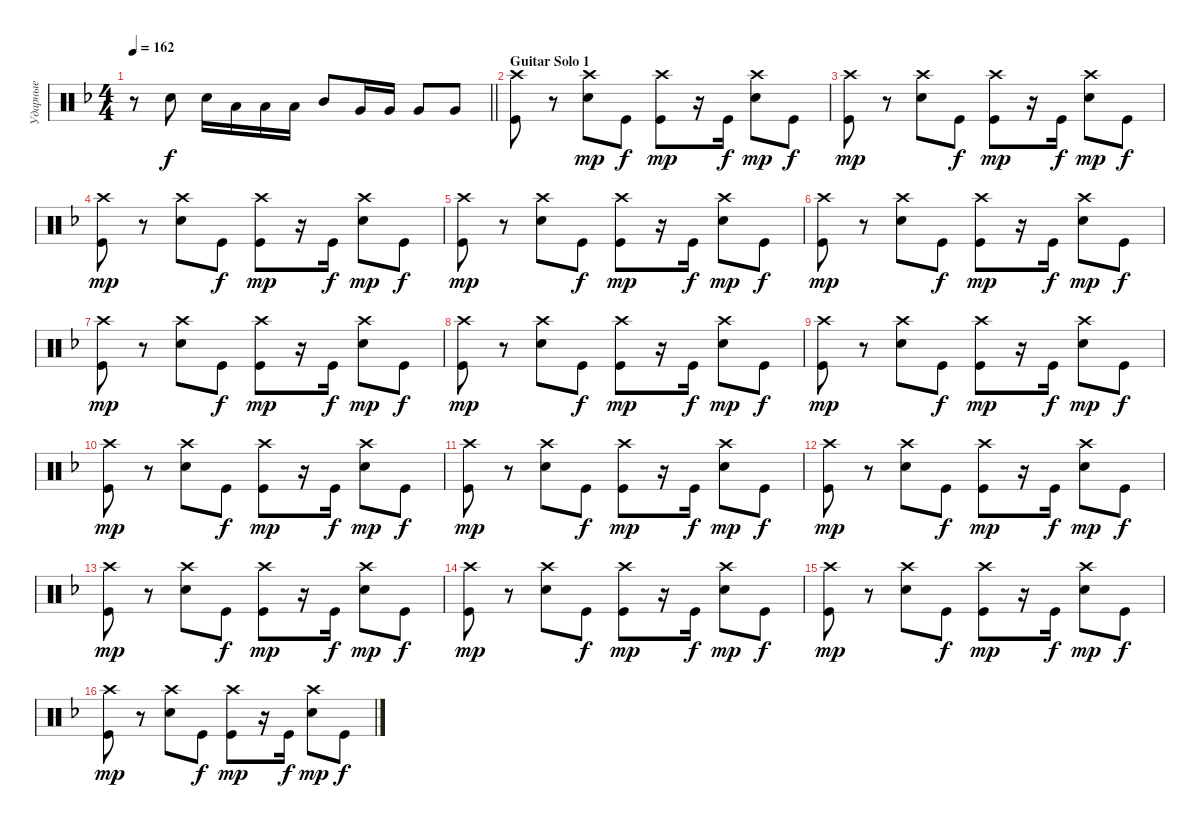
\track ("Ударные" "Ударные") {instrument percussion}
\staff {score}
\articulation defaults
\ts (4 4)
\tempo 162
\clef neutral
\barLineRight lightlight
\ks dminor
r.8{dy f} "Snare (hit) 2".8 "Snare (hit) 2".16 "Low Tom (hit)".16 "Low Tom (hit)".16 "Low Tom (hit)".16 "Mid Tom (hit)".8 "Very Low Tom (hit)".16 "Very Low Tom (hit)".16 "Very Low Tom (hit)".8 "Very Low Tom (hit)".8 |
\section ("" "Guitar Solo 1")
("Kick (hit)" "Crash high (hit)").8 r.8 ("Snare (hit) 2" "Crash high (hit)").8{dy mp} "Kick (hit)".8{dy f} ("Crash high (hit)" "Kick (hit)").8{dy mp} r.16 "Kick (hit)".16{dy f} ("Crash high (hit)" "Snare (hit) 2").8{dy mp} "Kick (hit)".8{dy f} |
("Kick (hit)" "Crash high (hit)").8{dy mp} r.8 ("Snare (hit) 2" "Crash high (hit)").8 "Kick (hit)".8{dy f} ("Crash high (hit)" "Kick (hit)").8{dy mp} r.16 "Kick (hit)".16{dy f} ("Crash high (hit)" "Snare (hit) 2").8{dy mp} "Kick (hit)".8{dy f} |
("Kick (hit)" "Crash high (hit)").8{dy mp} r.8 ("Snare (hit) 2" "Crash high (hit)").8 "Kick (hit)".8{dy f} ("Crash high (hit)" "Kick (hit)").8{dy mp} r.16 "Kick (hit)".16{dy f} ("Crash high (hit)" "Snare (hit) 2").8{dy mp} "Kick (hit)".8{dy f} |
("Kick (hit)" "Crash high (hit)").8{dy mp} r.8 ("Snare (hit) 2" "Crash high (hit)").8 "Kick (hit)".8{dy f} ("Crash high (hit)" "Kick (hit)").8{dy mp} r.16 "Kick (hit)".16{dy f} ("Crash high (hit)" "Snare (hit) 2").8{dy mp} "Kick (hit)".8{dy f} |
("Kick (hit)" "Crash high (hit)").8{dy mp} r.8 ("Snare (hit) 2" "Crash high (hit)").8 "Kick (hit)".8{dy f} ("Crash high (hit)" "Kick (hit)").8{dy mp} r.16 "Kick (hit)".16{dy f} ("Crash high (hit)" "Snare (hit) 2").8{dy mp} "Kick (hit)".8{dy f} |
("Kick (hit)" "Crash high (hit)").8{dy mp} r.8 ("Snare (hit) 2" "Crash high (hit)").8 "Kick (hit)".8{dy f} ("Crash high (hit)" "Kick (hit)").8{dy mp} r.16 "Kick (hit)".16{dy f} ("Crash high (hit)" "Snare (hit) 2").8{dy mp} "Kick (hit)".8{dy f} |
("Kick (hit)" "Crash high (hit)").8{dy mp} r.8 ("Snare (hit) 2" "Crash high (hit)").8 "Kick (hit)".8{dy f} ("Crash high (hit)" "Kick (hit)").8{dy mp} r.16 "Kick (hit)".16{dy f} ("Crash high (hit)" "Snare (hit) 2").8{dy mp} "Kick (hit)".8{dy f} |
("Kick (hit)" "Crash high (hit)").8{dy mp} r.8 ("Snare (hit) 2" "Crash high (hit)").8 "Kick (hit)".8{dy f} ("Crash high (hit)" "Kick (hit)").8{dy mp} r.16 "Kick (hit)".16{dy f} ("Crash high (hit)" "Snare (hit) 2").8{dy mp} "Kick (hit)".8{dy f} |
("Kick (hit)" "Crash high (hit)").8{dy mp} r.8 ("Snare (hit) 2" "Crash high (hit)").8 "Kick (hit)".8{dy f} ("Crash high (hit)" "Kick (hit)").8{dy mp} r.16 "Kick (hit)".16{dy f} ("Crash high (hit)" "Snare (hit) 2").8{dy mp} "Kick (hit)".8{dy f} |
("Kick (hit)" "Crash high (hit)").8{dy mp} r.8 ("Snare (hit) 2" "Crash high (hit)").8 "Kick (hit)".8{dy f} ("Crash high (hit)" "Kick (hit)").8{dy mp} r.16 "Kick (hit)".16{dy f} ("Crash high (hit)" "Snare (hit) 2").8{dy mp} "Kick (hit)".8{dy f} |
("Kick (hit)" "Crash high (hit)").8{dy mp} r.8 ("Snare (hit) 2" "Crash high (hit)").8 "Kick (hit)".8{dy f} ("Crash high (hit)" "Kick (hit)").8{dy mp} r.16 "Kick (hit)".16{dy f} ("Crash high (hit)" "Snare (hit) 2").8{dy mp} "Kick (hit)".8{dy f} |
("Kick (hit)" "Crash high (hit)").8{dy mp} r.8 ("Snare (hit) 2" "Crash high (hit)").8 "Kick (hit)".8{dy f} ("Crash high (hit)" "Kick (hit)").8{dy mp} r.16 "Kick (hit)".16{dy f} ("Crash high (hit)" "Snare (hit) 2").8{dy mp} "Kick (hit)".8{dy f} |
("Kick (hit)" "Crash high (hit)").8{dy mp} r.8 ("Snare (hit) 2" "Crash high (hit)").8 "Kick (hit)".8{dy f} ("Crash high (hit)" "Kick (hit)").8{dy mp} r.16 "Kick (hit)".16{dy f} ("Crash high (hit)" "Snare (hit) 2").8{dy mp} "Kick (hit)".8{dy f} |
("Kick (hit)" "Crash high (hit)").8{dy mp} r.8 ("Snare (hit) 2" "Crash high (hit)").8 "Kick (hit)".8{dy f} ("Crash high (hit)" "Kick (hit)").8{dy mp} r.16 "Kick (hit)".16{dy f} ("Crash high (hit)" "Snare (hit) 2").8{dy mp} "Kick (hit)".8{dy f} |
("Kick (hit)" "Crash high (hit)").8{dy mp} r.8 ("Snare (hit) 2" "Crash high (hit)").8 "Kick (hit)".8{dy f} ("Crash high (hit)" "Kick (hit)").8{dy mp} r.16 "Kick (hit)".16{dy f} ("Crash high (hit)" "Snare (hit) 2").8{dy mp} "Kick (hit)".8{dy f}
